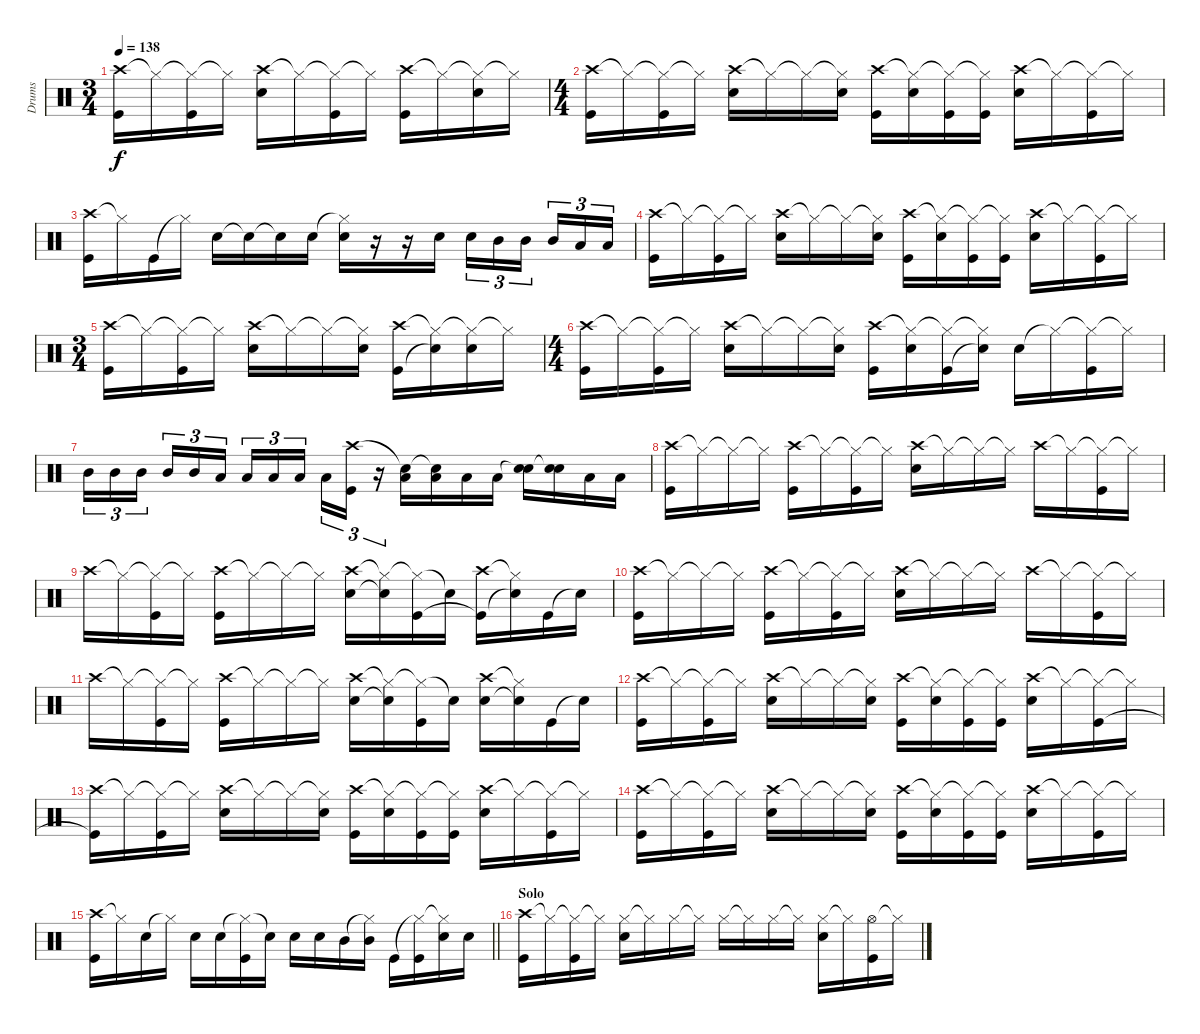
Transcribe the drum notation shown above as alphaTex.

\track ("Drums" "Drums") {instrument percussion}
\staff {score}
\articulation defaults
\ts (3 4)
\tempo 138
\clef neutral
\ks c
("Crash high (hit)" "Kick (hit)").16{dy f} "Hi-Hat (closed)"{t}.16 ("Hi-Hat (closed)"{t} "Kick (hit)").16 "Hi-Hat (closed)"{t}.16 ("Crash high (hit)" "Electric Snare (hit)").16 "Hi-Hat (closed)"{t}.16 ("Hi-Hat (closed)"{t} "Kick (hit)").16 "Hi-Hat (closed)"{t}.16 ("Crash high (hit)" "Kick (hit)").16 "Hi-Hat (closed)"{t}.16 ("Hi-Hat (closed)"{t} "Electric Snare (hit)").16 "Hi-Hat (closed)"{t}.16 |
\ts (4 4)
("Crash high (hit)" "Kick (hit)").16 "Hi-Hat (closed)"{t}.16 ("Hi-Hat (closed)"{t} "Kick (hit)").16 "Hi-Hat (closed)"{t}.16 ("Crash high (hit)" "Electric Snare (hit)").16 "Hi-Hat (closed)"{t}.16 "Hi-Hat (closed)"{t}.16 ("Hi-Hat (closed)"{t} "Electric Snare (hit)").16 ("Crash high (hit)" "Kick (hit)").16 ("Hi-Hat (closed)"{t} "Electric Snare (hit)").16 ("Hi-Hat (closed)"{t} "Kick (hit)").16 ("Hi-Hat (closed)"{t} "Kick (hit)").16 ("Crash high (hit)" "Electric Snare (hit)").16 "Hi-Hat (closed)"{t}.16 ("Hi-Hat (closed)"{t} "Kick (hit)").16 "Hi-Hat (closed)"{t}.16 |
("Crash high (hit)" "Kick (hit)").16 "Hi-Hat (closed)"{t}.16 "Kick (hit)".16 "Hi-Hat (closed)"{t}.16 "Electric Snare (hit)".16 "Snare (hit)"{t}.16 "Snare (hit)"{t}.16 "Electric Snare (hit)".16 ("Hi-Hat (closed)"{t} "Electric Snare (hit)").16 r.16 r.16 "Electric Snare (hit)".16 "Electric Snare (hit)".16{tu (3 2)} "Mid Tom (hit)".16{tu (3 2)} "Mid Tom (hit)".16{tu (3 2)} "Mid Tom (hit)".16{tu (3 2)} "Low Tom (hit)".16{tu (3 2)} "Low Tom (hit)".16{tu (3 2)} |
("Crash high (hit)" "Kick (hit)").16 "Hi-Hat (closed)"{t}.16 ("Hi-Hat (closed)"{t} "Kick (hit)").16 "Hi-Hat (closed)"{t}.16 ("Crash high (hit)" "Electric Snare (hit)").16 "Hi-Hat (closed)"{t}.16 "Hi-Hat (closed)"{t}.16 ("Hi-Hat (closed)"{t} "Electric Snare (hit)").16 ("Crash high (hit)" "Kick (hit)").16 ("Hi-Hat (closed)"{t} "Electric Snare (hit)").16 ("Hi-Hat (closed)"{t} "Kick (hit)").16 ("Hi-Hat (closed)"{t} "Kick (hit)").16 ("Crash high (hit)" "Electric Snare (hit)").16 "Hi-Hat (closed)"{t}.16 ("Hi-Hat (closed)"{t} "Kick (hit)").16 "Hi-Hat (closed)"{t}.16 |
\ts (3 4)
("Crash high (hit)" "Kick (hit)").16 "Hi-Hat (closed)"{t}.16 ("Hi-Hat (closed)"{t} "Kick (hit)").16 "Hi-Hat (closed)"{t}.16 ("Crash high (hit)" "Electric Snare (hit)").16 "Hi-Hat (closed)"{t}.16 "Hi-Hat (closed)"{t}.16 ("Hi-Hat (closed)"{t} "Electric Snare (hit)").16 ("Crash high (hit)" "Kick (hit)").16 ("Hi-Hat (closed)"{t} "Electric Snare (hit)"{t}).16 ("Hi-Hat (closed)"{t} "Electric Snare (hit)").16 "Hi-Hat (closed)"{t}.16 |
\ts (4 4)
("Crash high (hit)" "Kick (hit)").16 "Hi-Hat (closed)"{t}.16 ("Hi-Hat (closed)"{t} "Kick (hit)").16 "Hi-Hat (closed)"{t}.16 ("Crash high (hit)" "Electric Snare (hit)").16 "Hi-Hat (closed)"{t}.16 "Hi-Hat (closed)"{t}.16 ("Hi-Hat (closed)"{t} "Electric Snare (hit)").16 ("Crash high (hit)" "Kick (hit)").16 ("Hi-Hat (closed)"{t} "Electric Snare (hit)").16 ("Hi-Hat (closed)"{t} "Kick (hit)").16 ("Hi-Hat (closed)"{t} "Electric Snare (hit)"{t}).16 "Electric Snare (hit)".16 "Hi-Hat (closed)"{t}.16 ("Hi-Hat (closed)"{t} "Kick (hit)").16 "Hi-Hat (closed)"{t}.16 |
"Mid Tom (hit)".16{tu (3 2)} "Mid Tom (hit)".16{tu (3 2)} "Mid Tom (hit)".16{tu (3 2)} "Mid Tom (hit)".16{tu (3 2)} "Mid Tom (hit)".16{tu (3 2)} "Low Tom (hit)".16{tu (3 2)} "Low Tom (hit)".16{tu (3 2)} "Low Tom (hit)".16{tu (3 2)} "Low Tom (hit)".16{tu (3 2)} "Low Tom (hit)".16{tu (3 2)} ("Crash high (hit)" "Kick (hit)").16{tu (3 2)} r.16{tu (3 2)} ("Snare (hit)"{t} "Low Tom (hit)").16 ("Snare (hit)"{t} "Low Tom (hit)").16 "Low Floor Tom (hit)".16 "Low Floor Tom (hit)".16 ("Snare (hit)"{t} "Electric Snare (hit)").16 ("Snare (hit)"{t} "Electric Snare (hit)").16 "Low Floor Tom (hit)".16 "Low Floor Tom (hit)".16 |
("Crash high (hit)" "Kick (hit)").16 "Hi-Hat (closed)"{t}.16 "Hi-Hat (closed)"{t}.16 "Hi-Hat (closed)"{t}.16 ("Crash high (hit)" "Kick (hit)").16 "Hi-Hat (closed)"{t}.16 ("Hi-Hat (closed)"{t} "Kick (hit)").16 "Hi-Hat (closed)"{t}.16 ("Crash high (hit)" "Electric Snare (hit)").16 "Hi-Hat (closed)"{t}.16 "Hi-Hat (closed)"{t}.16 "Hi-Hat (closed)"{t}.16 "Crash high (hit)".16 "Hi-Hat (closed)"{t}.16 ("Hi-Hat (closed)"{t} "Kick (hit)").16 "Hi-Hat (closed)"{t}.16 |
"Crash high (hit)".16 "Hi-Hat (closed)"{t}.16 ("Hi-Hat (closed)"{t} "Kick (hit)").16 "Hi-Hat (closed)"{t}.16 ("Crash high (hit)" "Kick (hit)").16 "Hi-Hat (closed)"{t}.16 "Hi-Hat (closed)"{t}.16 "Hi-Hat (closed)"{t}.16 ("Crash high (hit)" "Electric Snare (hit)").16 ("Hi-Hat (closed)"{t} "Electric Snare (hit)"{t}).16 ("Hi-Hat (closed)"{t} "Kick (hit)").16 "Electric Snare (hit)"{t}.16 ("Crash high (hit)" "Kick (hit)"{t}).16 ("Hi-Hat (closed)"{t} "Electric Snare (hit)"{t}).16 "Kick (hit)".16 "Electric Snare (hit)"{t}.16 |
("Crash high (hit)" "Kick (hit)").16 "Hi-Hat (closed)"{t}.16 "Hi-Hat (closed)"{t}.16 "Hi-Hat (closed)"{t}.16 ("Crash high (hit)" "Kick (hit)").16 "Hi-Hat (closed)"{t}.16 ("Hi-Hat (closed)"{t} "Kick (hit)").16 "Hi-Hat (closed)"{t}.16 ("Crash high (hit)" "Electric Snare (hit)").16 "Hi-Hat (closed)"{t}.16 "Hi-Hat (closed)"{t}.16 "Hi-Hat (closed)"{t}.16 "Crash high (hit)".16 "Hi-Hat (closed)"{t}.16 ("Hi-Hat (closed)"{t} "Kick (hit)").16 "Hi-Hat (closed)"{t}.16 |
"Crash high (hit)".16 "Hi-Hat (closed)"{t}.16 ("Hi-Hat (closed)"{t} "Kick (hit)").16 "Hi-Hat (closed)"{t}.16 ("Crash high (hit)" "Kick (hit)").16 "Hi-Hat (closed)"{t}.16 "Hi-Hat (closed)"{t}.16 "Hi-Hat (closed)"{t}.16 ("Crash high (hit)" "Electric Snare (hit)").16 ("Hi-Hat (closed)"{t} "Electric Snare (hit)"{t}).16 ("Hi-Hat (closed)"{t} "Kick (hit)").16 "Electric Snare (hit)"{t}.16 ("Crash high (hit)" "Electric Snare (hit)").16 ("Hi-Hat (closed)"{t} "Electric Snare (hit)"{t}).16 "Kick (hit)".16 "Electric Snare (hit)"{t}.16 |
("Crash high (hit)" "Kick (hit)").16 "Hi-Hat (closed)"{t}.16 ("Hi-Hat (closed)"{t} "Kick (hit)").16 "Hi-Hat (closed)"{t}.16 ("Crash high (hit)" "Electric Snare (hit)").16 "Hi-Hat (closed)"{t}.16 "Hi-Hat (closed)"{t}.16 ("Hi-Hat (closed)"{t} "Electric Snare (hit)").16 ("Crash high (hit)" "Kick (hit)").16 ("Hi-Hat (closed)"{t} "Electric Snare (hit)").16 ("Hi-Hat (closed)"{t} "Kick (hit)").16 ("Hi-Hat (closed)"{t} "Kick (hit)").16 ("Crash high (hit)" "Electric Snare (hit)").16 "Hi-Hat (closed)"{t}.16 ("Hi-Hat (closed)"{t} "Kick (hit)").16 "Hi-Hat (closed)"{t}.16 |
("Crash high (hit)" "Kick (hit)"{t}).16 "Hi-Hat (closed)"{t}.16 ("Hi-Hat (closed)"{t} "Kick (hit)").16 "Hi-Hat (closed)"{t}.16 ("Crash high (hit)" "Electric Snare (hit)").16 "Hi-Hat (closed)"{t}.16 "Hi-Hat (closed)"{t}.16 ("Hi-Hat (closed)"{t} "Electric Snare (hit)").16 ("Crash high (hit)" "Kick (hit)").16 ("Hi-Hat (closed)"{t} "Electric Snare (hit)").16 ("Hi-Hat (closed)"{t} "Kick (hit)").16 ("Hi-Hat (closed)"{t} "Kick (hit)").16 ("Crash high (hit)" "Electric Snare (hit)").16 "Hi-Hat (closed)"{t}.16 ("Hi-Hat (closed)"{t} "Kick (hit)").16 "Hi-Hat (closed)"{t}.16 |
("Crash high (hit)" "Kick (hit)").16 "Hi-Hat (closed)"{t}.16 ("Hi-Hat (closed)"{t} "Kick (hit)").16 "Hi-Hat (closed)"{t}.16 ("Crash high (hit)" "Electric Snare (hit)").16 "Hi-Hat (closed)"{t}.16 "Hi-Hat (closed)"{t}.16 ("Hi-Hat (closed)"{t} "Electric Snare (hit)").16 ("Crash high (hit)" "Kick (hit)").16 ("Hi-Hat (closed)"{t} "Electric Snare (hit)").16 ("Hi-Hat (closed)"{t} "Kick (hit)").16 ("Hi-Hat (closed)"{t} "Kick (hit)").16 ("Crash high (hit)" "Electric Snare (hit)").16 "Hi-Hat (closed)"{t}.16 ("Hi-Hat (closed)"{t} "Kick (hit)").16 "Hi-Hat (closed)"{t}.16 |
\barLineRight lightlight
("Crash high (hit)" "Kick (hit)").16 "Hi-Hat (closed)"{t}.16 "Electric Snare (hit)".16 "Hi-Hat (closed)"{t}.16 "Electric Snare (hit)".16 "Electric Snare (hit)".16 ("Hi-Hat (closed)"{t} "Kick (hit)").16 "Snare (hit)"{t}.16 "Electric Snare (hit)".16 "Electric Snare (hit)".16 "Mid Tom (hit)".16 ("Hi-Hat (closed)"{t} "Mid Tom (hit)").16 "Kick (hit)".16 ("Hi-Hat (closed)"{t} "Kick (hit)").16 ("Hi-Hat (closed)"{t} "Electric Snare (hit)").16 "Electric Snare (hit)".16 |
\section ("" "Solo")
("Crash high (hit)" "Kick (hit)").16 "Hi-Hat (closed)"{t}.16 ("Hi-Hat (closed)"{t} "Kick (hit)").16 "Hi-Hat (closed)"{t}.16 ("Hi-Hat (closed)" "Electric Snare (hit)").16 "Hi-Hat (closed)"{t}.16 "Hi-Hat (closed)".16 "Hi-Hat (closed)"{t}.16 "Hi-Hat (closed)".16 "Hi-Hat (closed)"{t}.16 "Hi-Hat (closed)".16 "Hi-Hat (closed)"{t}.16 ("Hi-Hat (closed)" "Electric Snare (hit)").16 "Hi-Hat (closed)"{t}.16 ("Hi-Hat (open)" "Kick (hit)").16 "Hi-Hat (closed)"{t}.16
